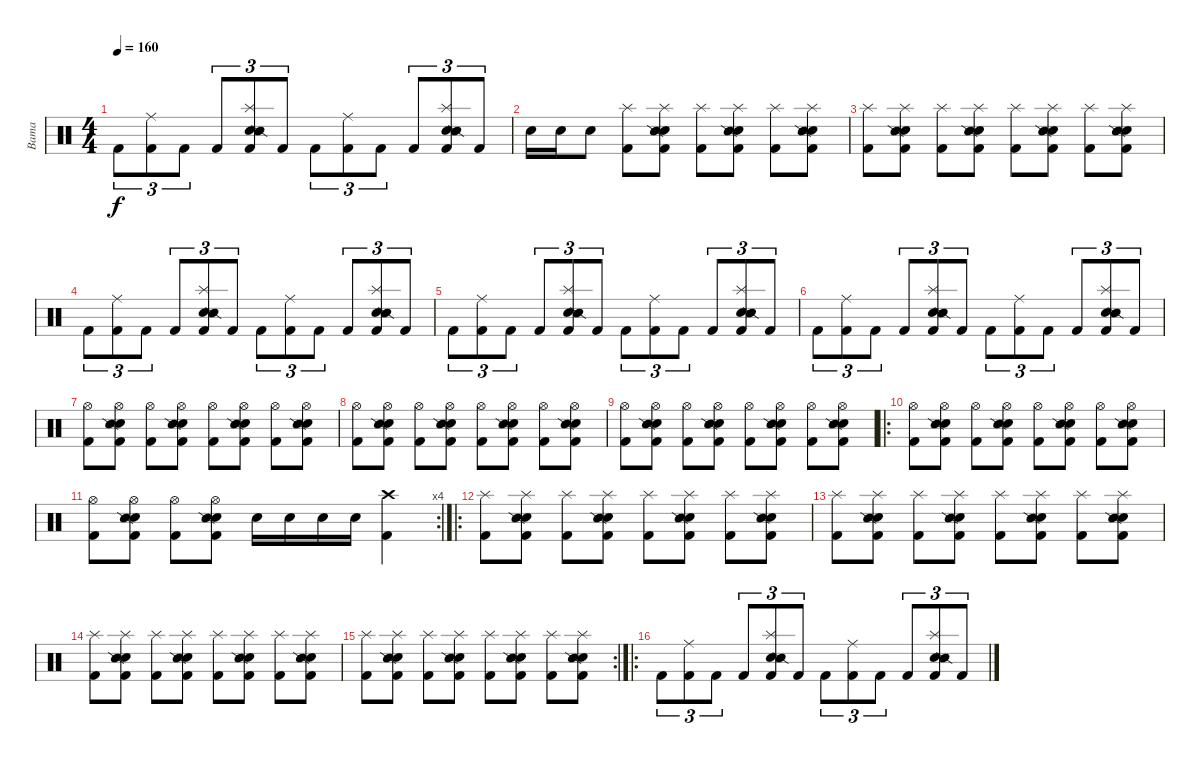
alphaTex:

\track ("Bama" "Bama") {instrument percussion}
\staff {score}
\articulation defaults
\ts (4 4)
\tempo 160
\clef neutral
\ks c "Kick (hit) 2".8{tu (3 2) dy f}
("Ride (middle)" "Kick (hit) 2").8{tu (3 2)} "Kick (hit) 2".8{tu (3 2)} "Kick (hit) 2".8{tu (3 2)} ("Splash (hit)" "Electric Snare (hit)" "Snare (side stick) 2" "Kick (hit) 2").8{tu (3 2)} "Kick (hit) 2".8{tu (3 2)} "Kick (hit) 2".8{tu (3 2)} ("Ride (middle)" "Kick (hit) 2").8{tu (3 2)} "Kick (hit) 2".8{tu (3 2)} "Kick (hit) 2".8{tu (3 2)} ("Splash (hit)" "Electric Snare (hit)" "Snare (side stick) 2" "Kick (hit) 2").8{tu (3 2)} "Kick (hit) 2".8{tu (3 2)} |
"Electric Snare (hit)".16 "Electric Snare (hit)".16 "Electric Snare (hit)".8 ("Splash (hit)" "Kick (hit) 2").8 ("Splash (hit)" "Electric Snare (hit)" "Snare (side stick) 2" "Kick (hit) 2").8 ("Splash (hit)" "Kick (hit) 2").8 ("Splash (hit)" "Electric Snare (hit)" "Snare (side stick) 2" "Kick (hit) 2").8 ("Splash (hit)" "Kick (hit) 2").8 ("Splash (hit)" "Electric Snare (hit)" "Snare (side stick) 2" "Kick (hit) 2").8 |
("Splash (hit)" "Kick (hit) 2").8 ("Splash (hit)" "Electric Snare (hit)" "Snare (side stick) 2" "Kick (hit) 2").8 ("Splash (hit)" "Kick (hit) 2").8 ("Splash (hit)" "Electric Snare (hit)" "Snare (side stick) 2" "Kick (hit) 2").8 ("Splash (hit)" "Kick (hit) 2").8 ("Splash (hit)" "Electric Snare (hit)" "Snare (side stick) 2" "Kick (hit) 2").8 ("Splash (hit)" "Kick (hit) 2").8 ("Splash (hit)" "Electric Snare (hit)" "Snare (side stick) 2" "Kick (hit) 2").8 |
"Kick (hit) 2".8{tu (3 2)} ("Ride (middle)" "Kick (hit) 2").8{tu (3 2)} "Kick (hit) 2".8{tu (3 2)} "Kick (hit) 2".8{tu (3 2)} ("Splash (hit)" "Electric Snare (hit)" "Snare (side stick) 2" "Kick (hit) 2").8{tu (3 2)} "Kick (hit) 2".8{tu (3 2)} "Kick (hit) 2".8{tu (3 2)} ("Ride (middle)" "Kick (hit) 2").8{tu (3 2)} "Kick (hit) 2".8{tu (3 2)} "Kick (hit) 2".8{tu (3 2)} ("Splash (hit)" "Electric Snare (hit)" "Snare (side stick) 2" "Kick (hit) 2").8{tu (3 2)} "Kick (hit) 2".8{tu (3 2)} |
"Kick (hit) 2".8{tu (3 2)} ("Ride (middle)" "Kick (hit) 2").8{tu (3 2)} "Kick (hit) 2".8{tu (3 2)} "Kick (hit) 2".8{tu (3 2)} ("Splash (hit)" "Electric Snare (hit)" "Snare (side stick) 2" "Kick (hit) 2").8{tu (3 2)} "Kick (hit) 2".8{tu (3 2)} "Kick (hit) 2".8{tu (3 2)} ("Ride (middle)" "Kick (hit) 2").8{tu (3 2)} "Kick (hit) 2".8{tu (3 2)} "Kick (hit) 2".8{tu (3 2)} ("Splash (hit)" "Electric Snare (hit)" "Snare (side stick) 2" "Kick (hit) 2").8{tu (3 2)} "Kick (hit) 2".8{tu (3 2)} |
"Kick (hit) 2".8{tu (3 2)} ("Ride (middle)" "Kick (hit) 2").8{tu (3 2)} "Kick (hit) 2".8{tu (3 2)} "Kick (hit) 2".8{tu (3 2)} ("Splash (hit)" "Electric Snare (hit)" "Snare (side stick) 2" "Kick (hit) 2").8{tu (3 2)} "Kick (hit) 2".8{tu (3 2)} "Kick (hit) 2".8{tu (3 2)} ("Ride (middle)" "Kick (hit) 2").8{tu (3 2)} "Kick (hit) 2".8{tu (3 2)} "Kick (hit) 2".8{tu (3 2)} ("Splash (hit)" "Electric Snare (hit)" "Snare (side stick) 2" "Kick (hit) 2").8{tu (3 2)} "Kick (hit) 2".8{tu (3 2)} |
("Hi-Hat (open)" "Kick (hit) 2").8 ("Hi-Hat (open)" "Electric Snare (hit)" "Snare (side stick) 2" "Kick (hit) 2").8 ("Hi-Hat (open)" "Kick (hit) 2").8 ("Hi-Hat (open)" "Electric Snare (hit)" "Snare (side stick) 2" "Kick (hit) 2").8 ("Hi-Hat (open)" "Kick (hit) 2").8 ("Hi-Hat (open)" "Electric Snare (hit)" "Snare (side stick) 2" "Kick (hit) 2").8 ("Hi-Hat (open)" "Kick (hit) 2").8 ("Hi-Hat (open)" "Electric Snare (hit)" "Snare (side stick) 2" "Kick (hit) 2").8 |
("Hi-Hat (open)" "Kick (hit) 2").8 ("Hi-Hat (open)" "Electric Snare (hit)" "Snare (side stick) 2" "Kick (hit) 2").8 ("Hi-Hat (open)" "Kick (hit) 2").8 ("Hi-Hat (open)" "Electric Snare (hit)" "Snare (side stick) 2" "Kick (hit) 2").8 ("Hi-Hat (open)" "Kick (hit) 2").8 ("Hi-Hat (open)" "Electric Snare (hit)" "Snare (side stick) 2" "Kick (hit) 2").8 ("Hi-Hat (open)" "Kick (hit) 2").8 ("Hi-Hat (open)" "Electric Snare (hit)" "Snare (side stick) 2" "Kick (hit) 2").8 |
("Hi-Hat (open)" "Kick (hit) 2").8 ("Hi-Hat (open)" "Electric Snare (hit)" "Snare (side stick) 2" "Kick (hit) 2").8 ("Hi-Hat (open)" "Kick (hit) 2").8 ("Hi-Hat (open)" "Electric Snare (hit)" "Snare (side stick) 2" "Kick (hit) 2").8 ("Hi-Hat (open)" "Kick (hit) 2").8 ("Hi-Hat (open)" "Electric Snare (hit)" "Snare (side stick) 2" "Kick (hit) 2").8 ("Hi-Hat (open)" "Kick (hit) 2").8 ("Hi-Hat (open)" "Electric Snare (hit)" "Snare (side stick) 2" "Kick (hit) 2").8 |
\ro
("Hi-Hat (open)" "Kick (hit) 2").8 ("Hi-Hat (open)" "Electric Snare (hit)" "Snare (side stick) 2" "Kick (hit) 2").8 ("Hi-Hat (open)" "Kick (hit) 2").8 ("Hi-Hat (open)" "Electric Snare (hit)" "Snare (side stick) 2" "Kick (hit) 2").8 ("Hi-Hat (open)" "Kick (hit) 2").8 ("Hi-Hat (open)" "Electric Snare (hit)" "Snare (side stick) 2" "Kick (hit) 2").8 ("Hi-Hat (open)" "Kick (hit) 2").8 ("Hi-Hat (open)" "Electric Snare (hit)" "Snare (side stick) 2" "Kick (hit) 2").8 |
\rc 4
("Hi-Hat (open)" "Kick (hit) 2").8 ("Hi-Hat (open)" "Electric Snare (hit)" "Snare (side stick) 2" "Kick (hit) 2").8 ("Hi-Hat (open)" "Kick (hit) 2").8 ("Hi-Hat (open)" "Electric Snare (hit)" "Snare (side stick) 2" "Kick (hit) 2").8 "Electric Snare (hit)".16 "Electric Snare (hit)".16 "Electric Snare (hit)".16 "Electric Snare (hit)".16 ("Crash high (hit)" "Kick (hit) 2").4 |
\ro
("Splash (hit)" "Kick (hit) 2").8 ("Splash (hit)" "Electric Snare (hit)" "Snare (side stick) 2" "Kick (hit) 2").8 ("Splash (hit)" "Kick (hit) 2").8 ("Splash (hit)" "Electric Snare (hit)" "Snare (side stick) 2" "Kick (hit) 2").8 ("Splash (hit)" "Kick (hit) 2").8 ("Splash (hit)" "Electric Snare (hit)" "Snare (side stick) 2" "Kick (hit) 2").8 ("Splash (hit)" "Kick (hit) 2").8 ("Splash (hit)" "Electric Snare (hit)" "Snare (side stick) 2" "Kick (hit) 2").8 |
("Splash (hit)" "Kick (hit) 2").8 ("Splash (hit)" "Electric Snare (hit)" "Snare (side stick) 2" "Kick (hit) 2").8 ("Splash (hit)" "Kick (hit) 2").8 ("Splash (hit)" "Electric Snare (hit)" "Snare (side stick) 2" "Kick (hit) 2").8 ("Splash (hit)" "Kick (hit) 2").8 ("Splash (hit)" "Electric Snare (hit)" "Snare (side stick) 2" "Kick (hit) 2").8 ("Splash (hit)" "Kick (hit) 2").8 ("Splash (hit)" "Electric Snare (hit)" "Snare (side stick) 2" "Kick (hit) 2").8 |
("Splash (hit)" "Kick (hit) 2").8 ("Splash (hit)" "Electric Snare (hit)" "Snare (side stick) 2" "Kick (hit) 2").8 ("Splash (hit)" "Kick (hit) 2").8 ("Splash (hit)" "Electric Snare (hit)" "Snare (side stick) 2" "Kick (hit) 2").8 ("Splash (hit)" "Kick (hit) 2").8 ("Splash (hit)" "Electric Snare (hit)" "Snare (side stick) 2" "Kick (hit) 2").8 ("Splash (hit)" "Kick (hit) 2").8 ("Splash (hit)" "Electric Snare (hit)" "Snare (side stick) 2" "Kick (hit) 2").8 |
\rc 2
("Splash (hit)" "Kick (hit) 2").8 ("Splash (hit)" "Electric Snare (hit)" "Snare (side stick) 2" "Kick (hit) 2").8 ("Splash (hit)" "Kick (hit) 2").8 ("Splash (hit)" "Electric Snare (hit)" "Snare (side stick) 2" "Kick (hit) 2").8 ("Splash (hit)" "Kick (hit) 2").8 ("Splash (hit)" "Electric Snare (hit)" "Snare (side stick) 2" "Kick (hit) 2").8 ("Splash (hit)" "Kick (hit) 2").8 ("Splash (hit)" "Electric Snare (hit)" "Snare (side stick) 2" "Kick (hit) 2").8 |
\ro "Kick (hit) 2".8{tu (3 2)}
("Ride (middle)" "Kick (hit) 2").8{tu (3 2)} "Kick (hit) 2".8{tu (3 2)} "Kick (hit) 2".8{tu (3 2)} ("Splash (hit)" "Electric Snare (hit)" "Snare (side stick) 2" "Kick (hit) 2").8{tu (3 2)} "Kick (hit) 2".8{tu (3 2)} "Kick (hit) 2".8{tu (3 2)} ("Ride (middle)" "Kick (hit) 2").8{tu (3 2)} "Kick (hit) 2".8{tu (3 2)} "Kick (hit) 2".8{tu (3 2)} ("Splash (hit)" "Electric Snare (hit)" "Snare (side stick) 2" "Kick (hit) 2").8{tu (3 2)} "Kick (hit) 2".8{tu (3 2)}
